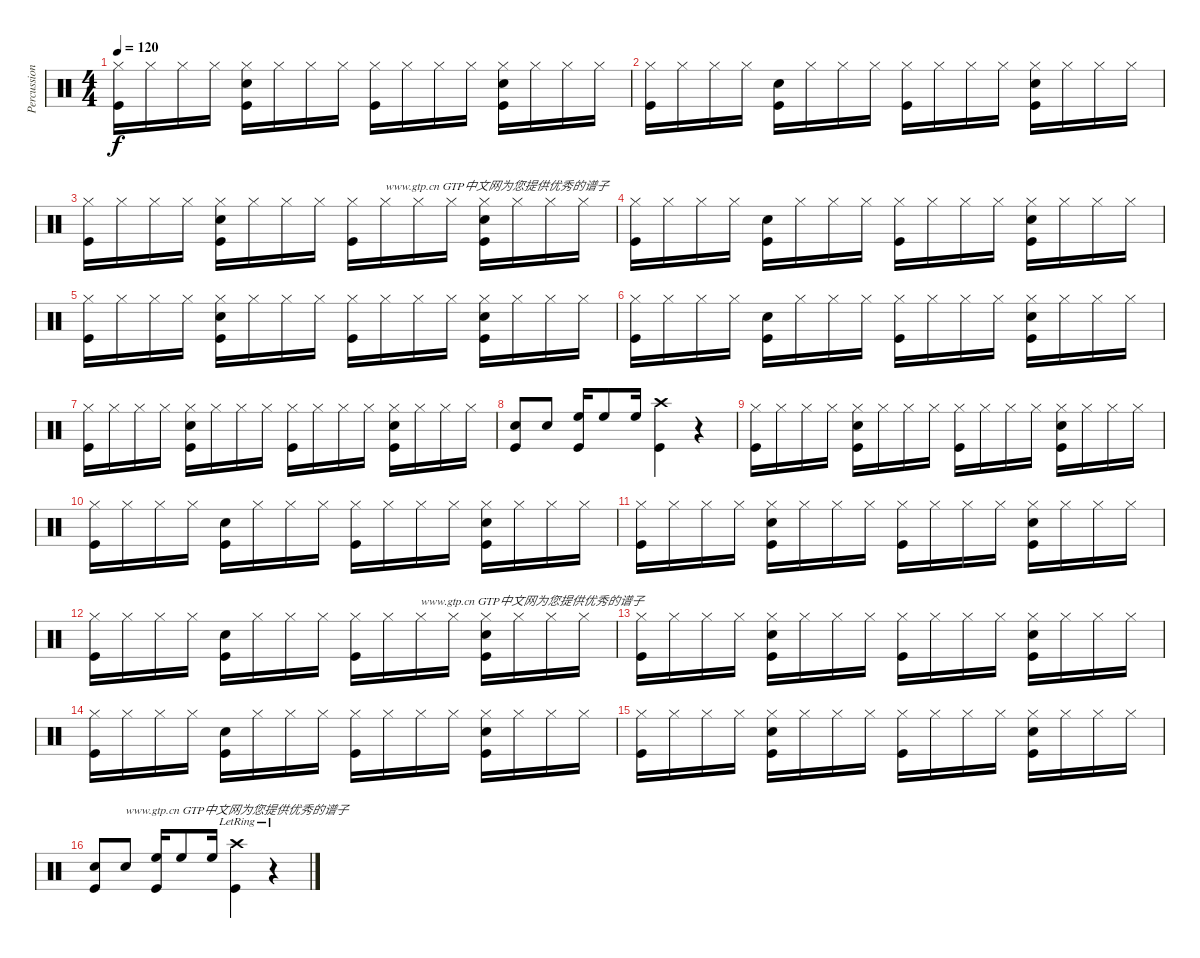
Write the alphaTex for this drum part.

\track ("Percussion" "Percussion") {instrument percussion}
\staff {score}
\articulation defaults
\ts (4 4)
\tempo 120
\clef neutral
\ks c
("Hi-Hat (closed)" "Kick (hit)").16{dy f} "Hi-Hat (closed)".16 "Hi-Hat (closed)".16 "Hi-Hat (closed)".16 ("Hi-Hat (closed)" "Snare (hit) 2" "Kick (hit)").16 "Hi-Hat (closed)".16 "Hi-Hat (closed)".16 "Hi-Hat (closed)".16 ("Hi-Hat (closed)" "Kick (hit)").16 "Hi-Hat (closed)".16 "Hi-Hat (closed)".16 "Hi-Hat (closed)".16 ("Hi-Hat (closed)" "Snare (hit) 2" "Kick (hit)").16 "Hi-Hat (closed)".16 "Hi-Hat (closed)".16 "Hi-Hat (closed)".16 |
("Hi-Hat (closed)" "Kick (hit)").16 "Hi-Hat (closed)".16 "Hi-Hat (closed)".16 "Hi-Hat (closed)".16 ("Snare (hit) 2" "Kick (hit)").16 "Hi-Hat (closed)".16 "Hi-Hat (closed)".16 "Hi-Hat (closed)".16 ("Hi-Hat (closed)" "Kick (hit)").16 "Hi-Hat (closed)".16 "Hi-Hat (closed)".16 "Hi-Hat (closed)".16 ("Hi-Hat (closed)" "Snare (hit) 2" "Kick (hit)").16 "Hi-Hat (closed)".16 "Hi-Hat (closed)".16 "Hi-Hat (closed)".16 |
("Hi-Hat (closed)" "Kick (hit)").16 "Hi-Hat (closed)".16 "Hi-Hat (closed)".16 "Hi-Hat (closed)".16 ("Hi-Hat (closed)" "Snare (hit) 2" "Kick (hit)").16 "Hi-Hat (closed)".16 "Hi-Hat (closed)".16 "Hi-Hat (closed)".16 ("Hi-Hat (closed)" "Kick (hit)").16 "Hi-Hat (closed)".16{txt "www.gtp.cn GTP中文网为您提供优秀的谱子"} "Hi-Hat (closed)".16 "Hi-Hat (closed)".16 ("Hi-Hat (closed)" "Snare (hit) 2" "Kick (hit)").16 "Hi-Hat (closed)".16 "Hi-Hat (closed)".16 "Hi-Hat (closed)".16 |
("Hi-Hat (closed)" "Kick (hit)").16 "Hi-Hat (closed)".16 "Hi-Hat (closed)".16 "Hi-Hat (closed)".16 ("Snare (hit) 2" "Kick (hit)").16 "Hi-Hat (closed)".16 "Hi-Hat (closed)".16 "Hi-Hat (closed)".16 ("Hi-Hat (closed)" "Kick (hit)").16 "Hi-Hat (closed)".16 "Hi-Hat (closed)".16 "Hi-Hat (closed)".16 ("Hi-Hat (closed)" "Snare (hit) 2" "Kick (hit)").16 "Hi-Hat (closed)".16 "Hi-Hat (closed)".16 "Hi-Hat (closed)".16 |
("Hi-Hat (closed)" "Kick (hit)").16 "Hi-Hat (closed)".16 "Hi-Hat (closed)".16 "Hi-Hat (closed)".16 ("Hi-Hat (closed)" "Snare (hit) 2" "Kick (hit)").16 "Hi-Hat (closed)".16 "Hi-Hat (closed)".16 "Hi-Hat (closed)".16 ("Hi-Hat (closed)" "Kick (hit)").16 "Hi-Hat (closed)".16 "Hi-Hat (closed)".16 "Hi-Hat (closed)".16 ("Hi-Hat (closed)" "Snare (hit) 2" "Kick (hit)").16 "Hi-Hat (closed)".16 "Hi-Hat (closed)".16 "Hi-Hat (closed)".16 |
("Hi-Hat (closed)" "Kick (hit)").16 "Hi-Hat (closed)".16 "Hi-Hat (closed)".16 "Hi-Hat (closed)".16 ("Snare (hit) 2" "Kick (hit)").16 "Hi-Hat (closed)".16 "Hi-Hat (closed)".16 "Hi-Hat (closed)".16 ("Hi-Hat (closed)" "Kick (hit)").16 "Hi-Hat (closed)".16 "Hi-Hat (closed)".16 "Hi-Hat (closed)".16 ("Hi-Hat (closed)" "Snare (hit) 2" "Kick (hit)").16 "Hi-Hat (closed)".16 "Hi-Hat (closed)".16 "Hi-Hat (closed)".16 |
("Hi-Hat (closed)" "Kick (hit)").16 "Hi-Hat (closed)".16 "Hi-Hat (closed)".16 "Hi-Hat (closed)".16 ("Hi-Hat (closed)" "Snare (hit) 2" "Kick (hit)").16 "Hi-Hat (closed)".16 "Hi-Hat (closed)".16 "Hi-Hat (closed)".16 ("Hi-Hat (closed)" "Kick (hit)").16 "Hi-Hat (closed)".16 "Hi-Hat (closed)".16 "Hi-Hat (closed)".16 ("Hi-Hat (closed)" "Snare (hit) 2" "Kick (hit)").16 "Hi-Hat (closed)".16 "Hi-Hat (closed)".16 "Hi-Hat (closed)".16 |
("Snare (hit) 2" "Kick (hit)").8 "Snare (hit) 2".8 ("High Floor Tom (hit)" "Kick (hit)").16 "High Floor Tom (hit)".8 "High Floor Tom (hit)".16 ("Crash high (hit)" "Kick (hit)").4 r.4 |
("Hi-Hat (closed)" "Kick (hit)").16 "Hi-Hat (closed)".16 "Hi-Hat (closed)".16 "Hi-Hat (closed)".16 ("Hi-Hat (closed)" "Snare (hit) 2" "Kick (hit)").16 "Hi-Hat (closed)".16 "Hi-Hat (closed)".16 "Hi-Hat (closed)".16 ("Hi-Hat (closed)" "Kick (hit)").16 "Hi-Hat (closed)".16 "Hi-Hat (closed)".16 "Hi-Hat (closed)".16 ("Hi-Hat (closed)" "Snare (hit) 2" "Kick (hit)").16 "Hi-Hat (closed)".16 "Hi-Hat (closed)".16 "Hi-Hat (closed)".16 |
("Hi-Hat (closed)" "Kick (hit)").16 "Hi-Hat (closed)".16 "Hi-Hat (closed)".16 "Hi-Hat (closed)".16 ("Snare (hit) 2" "Kick (hit)").16 "Hi-Hat (closed)".16 "Hi-Hat (closed)".16 "Hi-Hat (closed)".16 ("Hi-Hat (closed)" "Kick (hit)").16 "Hi-Hat (closed)".16 "Hi-Hat (closed)".16 "Hi-Hat (closed)".16 ("Hi-Hat (closed)" "Snare (hit) 2" "Kick (hit)").16 "Hi-Hat (closed)".16 "Hi-Hat (closed)".16 "Hi-Hat (closed)".16 |
("Hi-Hat (closed)" "Kick (hit)").16 "Hi-Hat (closed)".16 "Hi-Hat (closed)".16 "Hi-Hat (closed)".16 ("Hi-Hat (closed)" "Snare (hit) 2" "Kick (hit)").16 "Hi-Hat (closed)".16 "Hi-Hat (closed)".16 "Hi-Hat (closed)".16 ("Hi-Hat (closed)" "Kick (hit)").16 "Hi-Hat (closed)".16 "Hi-Hat (closed)".16 "Hi-Hat (closed)".16 ("Hi-Hat (closed)" "Snare (hit) 2" "Kick (hit)").16 "Hi-Hat (closed)".16 "Hi-Hat (closed)".16 "Hi-Hat (closed)".16 |
("Hi-Hat (closed)" "Kick (hit)").16 "Hi-Hat (closed)".16 "Hi-Hat (closed)".16 "Hi-Hat (closed)".16 ("Snare (hit) 2" "Kick (hit)").16 "Hi-Hat (closed)".16 "Hi-Hat (closed)".16 "Hi-Hat (closed)".16 ("Hi-Hat (closed)" "Kick (hit)").16 "Hi-Hat (closed)".16 "Hi-Hat (closed)".16{txt "www.gtp.cn GTP中文网为您提供优秀的谱子"} "Hi-Hat (closed)".16 ("Hi-Hat (closed)" "Snare (hit) 2" "Kick (hit)").16 "Hi-Hat (closed)".16 "Hi-Hat (closed)".16 "Hi-Hat (closed)".16 |
("Hi-Hat (closed)" "Kick (hit)").16 "Hi-Hat (closed)".16 "Hi-Hat (closed)".16 "Hi-Hat (closed)".16 ("Hi-Hat (closed)" "Snare (hit) 2" "Kick (hit)").16 "Hi-Hat (closed)".16 "Hi-Hat (closed)".16 "Hi-Hat (closed)".16 ("Hi-Hat (closed)" "Kick (hit)").16 "Hi-Hat (closed)".16 "Hi-Hat (closed)".16 "Hi-Hat (closed)".16 ("Hi-Hat (closed)" "Snare (hit) 2" "Kick (hit)").16 "Hi-Hat (closed)".16 "Hi-Hat (closed)".16 "Hi-Hat (closed)".16 |
("Hi-Hat (closed)" "Kick (hit)").16 "Hi-Hat (closed)".16 "Hi-Hat (closed)".16 "Hi-Hat (closed)".16 ("Snare (hit) 2" "Kick (hit)").16 "Hi-Hat (closed)".16 "Hi-Hat (closed)".16 "Hi-Hat (closed)".16 ("Hi-Hat (closed)" "Kick (hit)").16 "Hi-Hat (closed)".16 "Hi-Hat (closed)".16 "Hi-Hat (closed)".16 ("Hi-Hat (closed)" "Snare (hit) 2" "Kick (hit)").16 "Hi-Hat (closed)".16 "Hi-Hat (closed)".16 "Hi-Hat (closed)".16 |
("Hi-Hat (closed)" "Kick (hit)").16 "Hi-Hat (closed)".16 "Hi-Hat (closed)".16 "Hi-Hat (closed)".16 ("Hi-Hat (closed)" "Snare (hit) 2" "Kick (hit)").16 "Hi-Hat (closed)".16 "Hi-Hat (closed)".16 "Hi-Hat (closed)".16 ("Hi-Hat (closed)" "Kick (hit)").16 "Hi-Hat (closed)".16 "Hi-Hat (closed)".16 "Hi-Hat (closed)".16 ("Hi-Hat (closed)" "Snare (hit) 2" "Kick (hit)").16 "Hi-Hat (closed)".16 "Hi-Hat (closed)".16 "Hi-Hat (closed)".16 |
("Snare (hit) 2" "Kick (hit)").8 "Snare (hit) 2".8{txt "www.gtp.cn GTP中文网为您提供优秀的谱子"} ("High Floor Tom (hit)" "Kick (hit)").16 "High Floor Tom (hit)".8 "High Floor Tom (hit)".16 ("Crash high (hit)"{lr} "Kick (hit)").4 r.4
